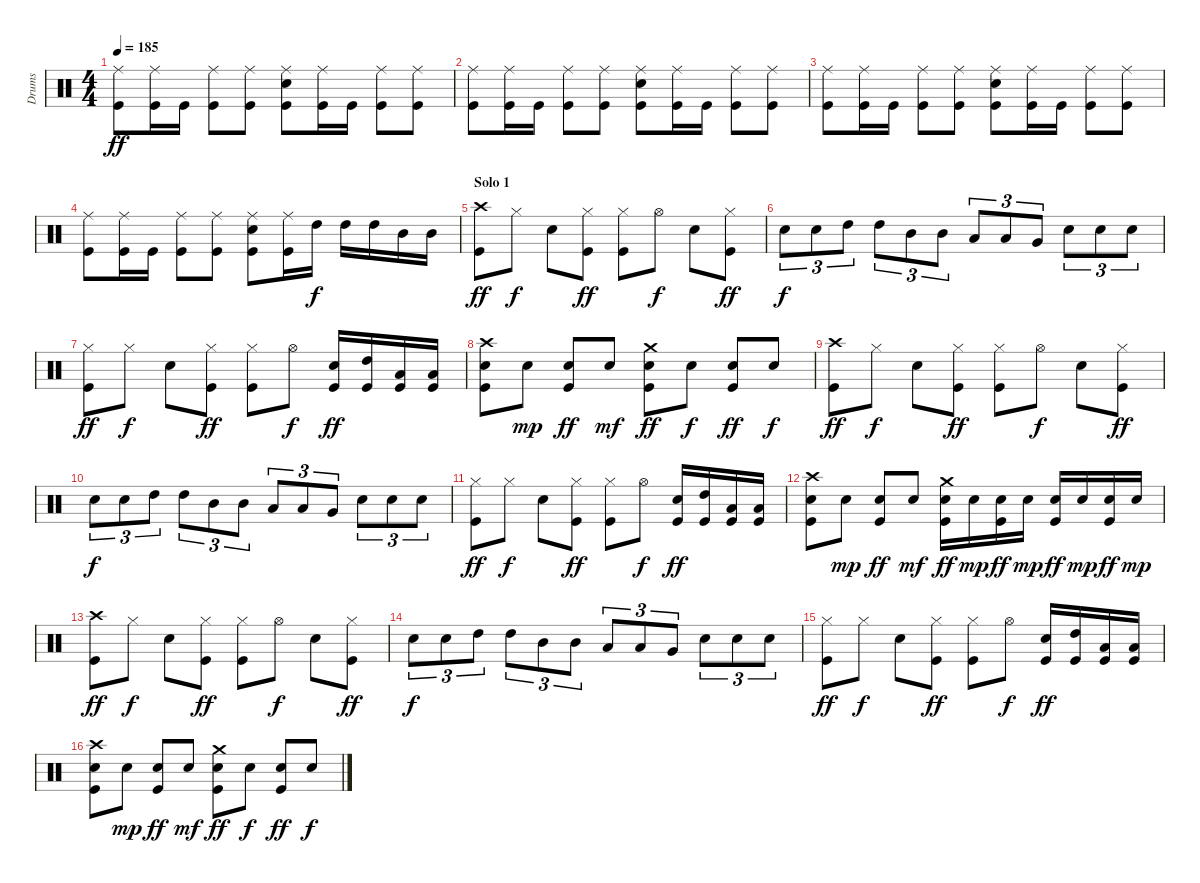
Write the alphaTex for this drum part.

\track ("Drums" "Drums") {instrument percussion}
\staff {score}
\articulation defaults
\ts (4 4)
\tempo 185
\clef neutral
\ks c
("Ride (middle)" "Kick (hit)").8{dy ff} ("Ride (middle)" "Kick (hit)").16 "Kick (hit)".16 ("Ride (middle)" "Kick (hit)").8 ("Ride (middle)" "Kick (hit)").8 ("Ride (middle)" "Snare (hit) 2" "Kick (hit)").8 ("Ride (middle)" "Kick (hit)").16 "Kick (hit)".16 ("Ride (middle)" "Kick (hit)").8 ("Ride (middle)" "Kick (hit)").8 |
("Ride (middle)" "Kick (hit)").8 ("Ride (middle)" "Kick (hit)").16 "Kick (hit)".16 ("Ride (middle)" "Kick (hit)").8 ("Ride (middle)" "Kick (hit)").8 ("Ride (middle)" "Snare (hit) 2" "Kick (hit)").8 ("Ride (middle)" "Kick (hit)").16 "Kick (hit)".16 ("Ride (middle)" "Kick (hit)").8 ("Ride (middle)" "Kick (hit)").8 |
("Ride (middle)" "Kick (hit)").8 ("Ride (middle)" "Kick (hit)").16 "Kick (hit)".16 ("Ride (middle)" "Kick (hit)").8 ("Ride (middle)" "Kick (hit)").8 ("Ride (middle)" "Snare (hit) 2" "Kick (hit)").8 ("Ride (middle)" "Kick (hit)").16 "Kick (hit)".16 ("Ride (middle)" "Kick (hit)").8 ("Ride (middle)" "Kick (hit)").8 |
("Ride (middle)" "Kick (hit)").8 ("Ride (middle)" "Kick (hit)").16 "Kick (hit)".16 ("Ride (middle)" "Kick (hit)").8 ("Ride (middle)" "Kick (hit)").8 ("Ride (middle)" "Snare (hit) 2" "Kick (hit)").8 ("Ride (middle)" "Kick (hit)").16 "High Tom (hit)".16{dy f} "High Tom (hit)".16 "High Tom (hit)".16 "Mid Tom (hit)".16 "Mid Tom (hit)".16 |
\section ("" "Solo 1")
("Crash high (hit)" "Kick (hit)").8{dy ff} "Hi-Hat (closed)".8{dy f} "Snare (hit) 2".8 ("Hi-Hat (closed)" "Kick (hit)").8{dy ff} ("Hi-Hat (closed)" "Kick (hit)").8 "Hi-Hat (open)".8{dy f} "Snare (hit) 2".8 ("Hi-Hat (closed)" "Kick (hit)").8{dy ff} |
"Snare (hit) 2".8{tu (3 2) dy f} "Snare (hit) 2".8{tu (3 2)} "High Tom (hit)".8{tu (3 2)} "High Tom (hit)".8{tu (3 2)} "Mid Tom (hit)".8{tu (3 2)} "Mid Tom (hit)".8{tu (3 2)} "Low Tom (hit)".8{tu (3 2)} "Low Tom (hit)".8{tu (3 2)} "Very Low Tom (hit)".8{tu (3 2)} "Snare (hit) 2".8{tu (3 2)} "Snare (hit) 2".8{tu (3 2)} "Snare (hit) 2".8{tu (3 2)} |
("Hi-Hat (closed)" "Kick (hit)").8{dy ff} "Hi-Hat (closed)".8{dy f} "Snare (hit) 2".8 ("Hi-Hat (closed)" "Kick (hit)").8{dy ff} ("Hi-Hat (closed)" "Kick (hit)").8 "Hi-Hat (open)".8{dy f} ("Snare (hit) 2" "Kick (hit)").16{dy ff} ("High Tom (hit)" "Kick (hit)").16 ("Low Tom (hit)" "Kick (hit)").16 ("Low Floor Tom (hit)" "Kick (hit)").16 |
("Crash high (hit)" "Snare (hit) 2" "Kick (hit)").8 "Snare (hit) 2".8{dy mp} ("Snare (hit) 2" "Kick (hit)").8{dy ff} "Snare (hit) 2".8{dy mf} ("Crash medium (hit)" "Snare (hit) 2" "Kick (hit)").8{dy ff} "Snare (hit) 2".8{dy f} ("Snare (hit) 2" "Kick (hit)").8{dy ff} "Snare (hit) 2".8{dy f} |
("Crash high (hit)" "Kick (hit)").8{dy ff} "Hi-Hat (closed)".8{dy f} "Snare (hit) 2".8 ("Hi-Hat (closed)" "Kick (hit)").8{dy ff} ("Hi-Hat (closed)" "Kick (hit)").8 "Hi-Hat (open)".8{dy f} "Snare (hit) 2".8 ("Hi-Hat (closed)" "Kick (hit)").8{dy ff} |
"Snare (hit) 2".8{tu (3 2) dy f} "Snare (hit) 2".8{tu (3 2)} "High Tom (hit)".8{tu (3 2)} "High Tom (hit)".8{tu (3 2)} "Mid Tom (hit)".8{tu (3 2)} "Mid Tom (hit)".8{tu (3 2)} "Low Tom (hit)".8{tu (3 2)} "Low Tom (hit)".8{tu (3 2)} "Very Low Tom (hit)".8{tu (3 2)} "Snare (hit) 2".8{tu (3 2)} "Snare (hit) 2".8{tu (3 2)} "Snare (hit) 2".8{tu (3 2)} |
("Hi-Hat (closed)" "Kick (hit)").8{dy ff} "Hi-Hat (closed)".8{dy f} "Snare (hit) 2".8 ("Hi-Hat (closed)" "Kick (hit)").8{dy ff} ("Hi-Hat (closed)" "Kick (hit)").8 "Hi-Hat (open)".8{dy f} ("Snare (hit) 2" "Kick (hit)").16{dy ff} ("High Tom (hit)" "Kick (hit)").16 ("Low Tom (hit)" "Kick (hit)").16 ("Low Floor Tom (hit)" "Kick (hit)").16 |
("Crash high (hit)" "Snare (hit) 2" "Kick (hit)").8 "Snare (hit) 2".8{dy mp} ("Snare (hit) 2" "Kick (hit)").8{dy ff} "Snare (hit) 2".8{dy mf} ("Crash medium (hit)" "Snare (hit) 2" "Kick (hit)").16{dy ff} "Snare (hit) 2".16{dy mp} ("Snare (hit) 2" "Kick (hit)").16{dy ff} "Snare (hit) 2".16{dy mp} ("Snare (hit) 2" "Kick (hit)").16{dy ff} "Snare (hit) 2".16{dy mp} ("Snare (hit) 2" "Kick (hit)").16{dy ff} "Snare (hit) 2".16{dy mp} |
("Crash high (hit)" "Kick (hit)").8{dy ff} "Hi-Hat (closed)".8{dy f} "Snare (hit) 2".8 ("Hi-Hat (closed)" "Kick (hit)").8{dy ff} ("Hi-Hat (closed)" "Kick (hit)").8 "Hi-Hat (open)".8{dy f} "Snare (hit) 2".8 ("Hi-Hat (closed)" "Kick (hit)").8{dy ff} |
"Snare (hit) 2".8{tu (3 2) dy f} "Snare (hit) 2".8{tu (3 2)} "High Tom (hit)".8{tu (3 2)} "High Tom (hit)".8{tu (3 2)} "Mid Tom (hit)".8{tu (3 2)} "Mid Tom (hit)".8{tu (3 2)} "Low Tom (hit)".8{tu (3 2)} "Low Tom (hit)".8{tu (3 2)} "Very Low Tom (hit)".8{tu (3 2)} "Snare (hit) 2".8{tu (3 2)} "Snare (hit) 2".8{tu (3 2)} "Snare (hit) 2".8{tu (3 2)} |
("Hi-Hat (closed)" "Kick (hit)").8{dy ff} "Hi-Hat (closed)".8{dy f} "Snare (hit) 2".8 ("Hi-Hat (closed)" "Kick (hit)").8{dy ff} ("Hi-Hat (closed)" "Kick (hit)").8 "Hi-Hat (open)".8{dy f} ("Snare (hit) 2" "Kick (hit)").16{dy ff} ("High Tom (hit)" "Kick (hit)").16 ("Low Tom (hit)" "Kick (hit)").16 ("Low Floor Tom (hit)" "Kick (hit)").16 |
("Crash high (hit)" "Snare (hit) 2" "Kick (hit)").8 "Snare (hit) 2".8{dy mp} ("Snare (hit) 2" "Kick (hit)").8{dy ff} "Snare (hit) 2".8{dy mf} ("Crash medium (hit)" "Snare (hit) 2" "Kick (hit)").8{dy ff} "Snare (hit) 2".8{dy f} ("Snare (hit) 2" "Kick (hit)").8{dy ff} "Snare (hit) 2".8{dy f}
